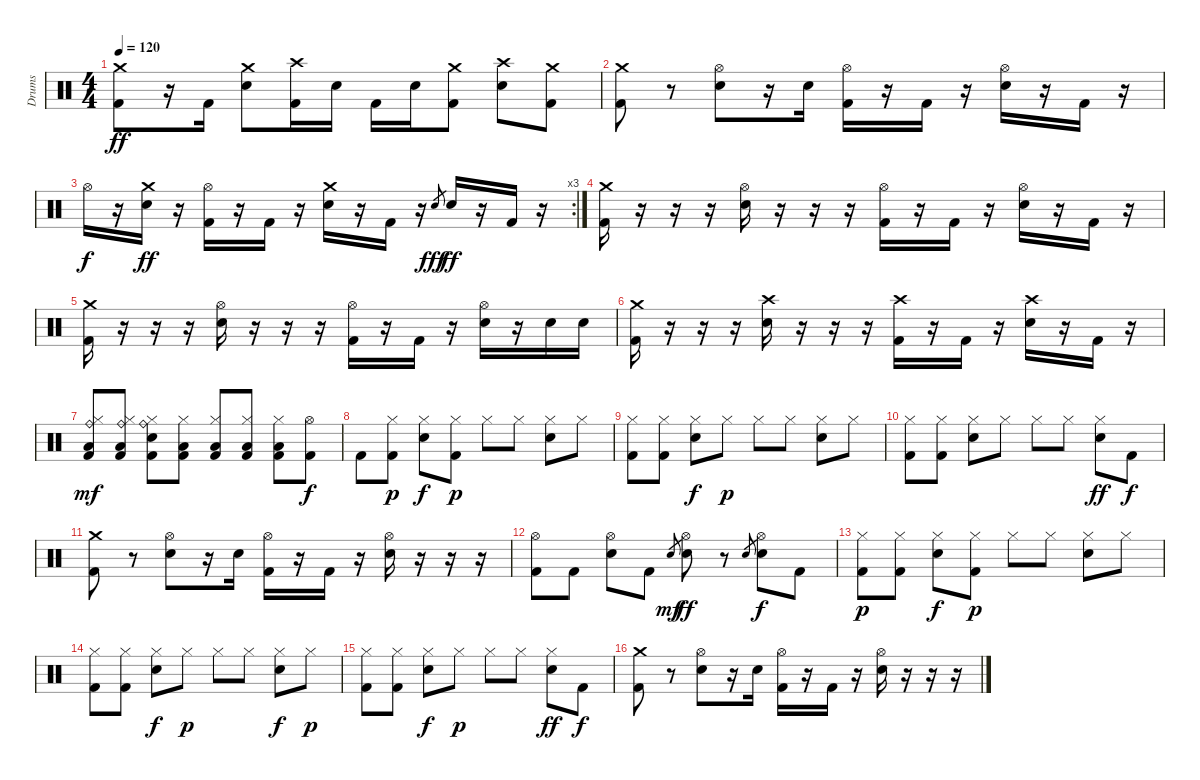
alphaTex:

\track ("Drums" "Drums") {instrument percussion}
\staff {score}
\articulation defaults
\ts (4 4)
\tempo 120
\clef neutral
\ks c
("Crash medium (hit)" "Kick (hit) 2").8{dy ff} r.16 "Kick (hit) 2".16 ("Crash medium (hit)" "Snare (hit) 2").8 ("Crash high (hit)" "Kick (hit) 2").16 "Snare (hit) 2".16 "Kick (hit) 2".16 "Snare (hit) 2".16 ("Crash medium (hit)" "Kick (hit) 2").8 ("Crash high (hit)" "Snare (hit) 2").8 ("Crash medium (hit)" "Kick (hit) 2").8 |
("Crash medium (hit)" "Kick (hit) 2").8 r.8 ("Hi-Hat (open)" "Snare (hit) 2").8 r.16 "Snare (hit) 2".16 ("Hi-Hat (open)" "Kick (hit) 2").16 r.16 "Kick (hit) 2".16 r.16 ("Hi-Hat (open)" "Snare (hit) 2").16 r.16 "Kick (hit) 2".16 r.16 |
\rc 3 "Hi-Hat (open)".16{dy f}
r.16 ("Crash medium (hit)" "Snare (hit) 2").16{dy ff} r.16 ("Hi-Hat (open)" "Kick (hit) 2").16 r.16 "Kick (hit) 2".16 r.16 ("Crash medium (hit)" "Snare (hit) 2").16 r.16 "Kick (hit) 2".16 r.16 "Snare (hit) 2".8{gr dy fff} "Snare (hit) 2".16{dy ff} r.16 "Kick (hit) 2".16 r.16 |
("Crash medium (hit)" "Kick (hit) 2").16 r.16 r.16 r.16 ("Hi-Hat (open)" "Snare (hit) 2").16 r.16 r.16 r.16 ("Hi-Hat (open)" "Kick (hit) 2").16 r.16 "Kick (hit) 2".16 r.16 ("Hi-Hat (open)" "Snare (hit) 2").16 r.16 "Kick (hit) 2".16 r.16 |
("Crash medium (hit)" "Kick (hit) 2").16 r.16 r.16 r.16 ("Hi-Hat (open)" "Snare (hit) 2").16 r.16 r.16 r.16 ("Hi-Hat (open)" "Kick (hit) 2").16 r.16 "Kick (hit) 2".16 r.16 ("Hi-Hat (open)" "Snare (hit) 2").16 r.16 "Snare (hit) 2".16 "Snare (hit) 2".16 |
("Crash medium (hit)" "Kick (hit) 2").16 r.16 r.16 r.16 ("Crash high (hit)" "Snare (hit) 2").16 r.16 r.16 r.16 ("Crash high (hit)" "Kick (hit) 2").16 r.16 "Kick (hit) 2".16 r.16 ("Crash high (hit)" "Snare (hit) 2").16 r.16 "Kick (hit) 2".16 r.16 |
("Ride (bell)" "Hi-Hat (closed)" "Low Floor Tom (hit)" "Kick (hit) 2").8{dy mf} ("Ride (bell)" "Hi-Hat (closed)" "Low Floor Tom (hit)" "Kick (hit) 2").8 ("Ride (bell)" "Hi-Hat (closed)" "Snare (hit)" "Kick (hit) 2").8 ("Hi-Hat (closed)" "Low Floor Tom (hit)" "Kick (hit) 2").8 ("Hi-Hat (closed)" "Low Floor Tom (hit)" "Kick (hit) 2").8 ("Hi-Hat (closed)" "Low Floor Tom (hit)" "Kick (hit) 2").8 ("Hi-Hat (closed)" "Low Floor Tom (hit)" "Kick (hit) 2").8 ("Hi-Hat (open)" "Kick (hit) 2").8{dy f} |
"Kick (hit) 2".8 ("Hi-Hat (closed)" "Kick (hit) 2").8{dy p} ("Hi-Hat (closed)" "Snare (hit) 2").8{dy f} ("Hi-Hat (closed)" "Kick (hit) 2").8{dy p} "Hi-Hat (closed)".8 "Hi-Hat (closed)".8 ("Hi-Hat (closed)" "Snare (hit) 2").8 "Hi-Hat (closed)".8 |
("Hi-Hat (closed)" "Kick (hit) 2").8 ("Hi-Hat (closed)" "Kick (hit) 2").8 ("Hi-Hat (closed)" "Snare (hit) 2").8{dy f} "Hi-Hat (closed)".8{dy p} "Hi-Hat (closed)".8 "Hi-Hat (closed)".8 ("Hi-Hat (closed)" "Snare (hit) 2").8 "Hi-Hat (closed)".8 |
("Hi-Hat (closed)" "Kick (hit) 2").8 ("Hi-Hat (closed)" "Kick (hit) 2").8 ("Hi-Hat (closed)" "Snare (hit) 2").8 "Hi-Hat (closed)".8 "Hi-Hat (closed)".8 "Hi-Hat (closed)".8 ("Hi-Hat (closed)" "Snare (hit) 2").8{dy ff} "Kick (hit) 2".8{dy f} |
("Crash medium (hit)" "Kick (hit) 2").8 r.8 ("Hi-Hat (open)" "Snare (hit) 2").8 r.16 "Snare (hit) 2".16 ("Hi-Hat (open)" "Kick (hit) 2").16 r.16 "Kick (hit) 2".16 r.16 ("Hi-Hat (open)" "Snare (hit) 2").16 r.16 r.16 r.16 |
("Hi-Hat (open)" "Kick (hit) 2").8 "Kick (hit) 2".8 ("Hi-Hat (open)" "Snare (hit) 2").8 "Kick (hit) 2".8 "Snare (hit) 2".8{gr dy mf} ("Hi-Hat (open)" "Snare (hit) 2").8{dy ff} r.8 "Snare (hit) 2".8{gr} ("Hi-Hat (open)" "Snare (hit) 2").8{dy f} "Kick (hit) 2".8 |
("Hi-Hat (closed)" "Kick (hit) 2").8{dy p} ("Hi-Hat (closed)" "Kick (hit) 2").8 ("Hi-Hat (closed)" "Snare (hit) 2").8{dy f} ("Hi-Hat (closed)" "Kick (hit) 2").8{dy p} "Hi-Hat (closed)".8 "Hi-Hat (closed)".8 ("Hi-Hat (closed)" "Snare (hit) 2").8 "Hi-Hat (closed)".8 |
("Hi-Hat (closed)" "Kick (hit) 2").8 ("Hi-Hat (closed)" "Kick (hit) 2").8 ("Hi-Hat (closed)" "Snare (hit) 2").8{dy f} "Hi-Hat (closed)".8{dy p} "Hi-Hat (closed)".8 "Hi-Hat (closed)".8 ("Hi-Hat (closed)" "Snare (hit) 2").8{dy f} "Hi-Hat (closed)".8{dy p} |
("Hi-Hat (closed)" "Kick (hit) 2").8 ("Hi-Hat (closed)" "Kick (hit) 2").8 ("Hi-Hat (closed)" "Snare (hit) 2").8{dy f} "Hi-Hat (closed)".8{dy p} "Hi-Hat (closed)".8 "Hi-Hat (closed)".8 ("Hi-Hat (closed)" "Snare (hit) 2").8{dy ff} "Kick (hit) 2".8{dy f} |
("Crash medium (hit)" "Kick (hit) 2").8 r.8 ("Hi-Hat (open)" "Snare (hit) 2").8 r.16 "Snare (hit) 2".16 ("Hi-Hat (open)" "Kick (hit) 2").16 r.16 "Kick (hit) 2".16 r.16 ("Hi-Hat (open)" "Snare (hit) 2").16 r.16 r.16 r.16
